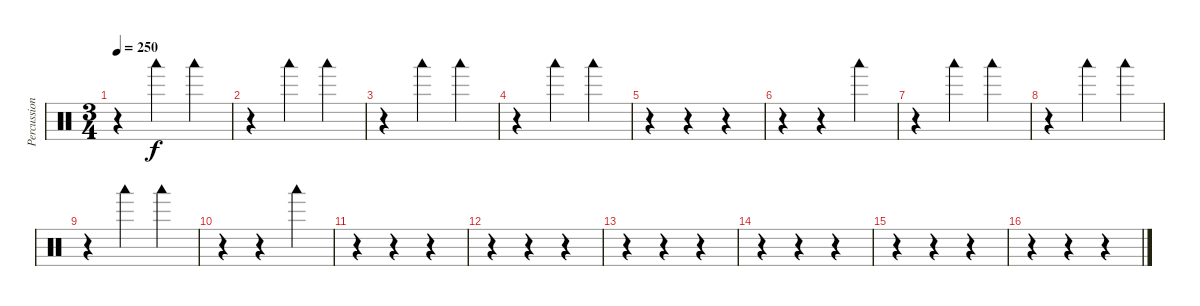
\track ("Percussions" "Percussion") {instrument percussion}
\staff {score}
\articulation defaults
\ts (3 4)
\tempo 250
\clef neutral
\ks c
r.4{dy f} "Woodblock low (hit)".4 "Woodblock low (hit)".4 |
r.4 "Woodblock low (hit)".4 "Woodblock low (hit)".4 |
r.4 "Woodblock low (hit)".4 "Woodblock low (hit)".4 |
r.4 "Woodblock low (hit)".4 "Woodblock low (hit)".4 |
r.4 r.4 r.4 |
r.4 r.4 "Woodblock low (hit)".4 |
r.4 "Woodblock low (hit)".4 "Woodblock low (hit)".4 |
r.4 "Woodblock low (hit)".4 "Woodblock low (hit)".4 |
r.4 "Woodblock low (hit)".4 "Woodblock low (hit)".4 |
r.4 r.4 "Woodblock low (hit)".4 |
r.4 r.4 r.4 |
r.4 r.4 r.4 |
r.4 r.4 r.4 |
r.4 r.4 r.4 |
r.4 r.4 r.4 |
r.4 r.4 r.4
